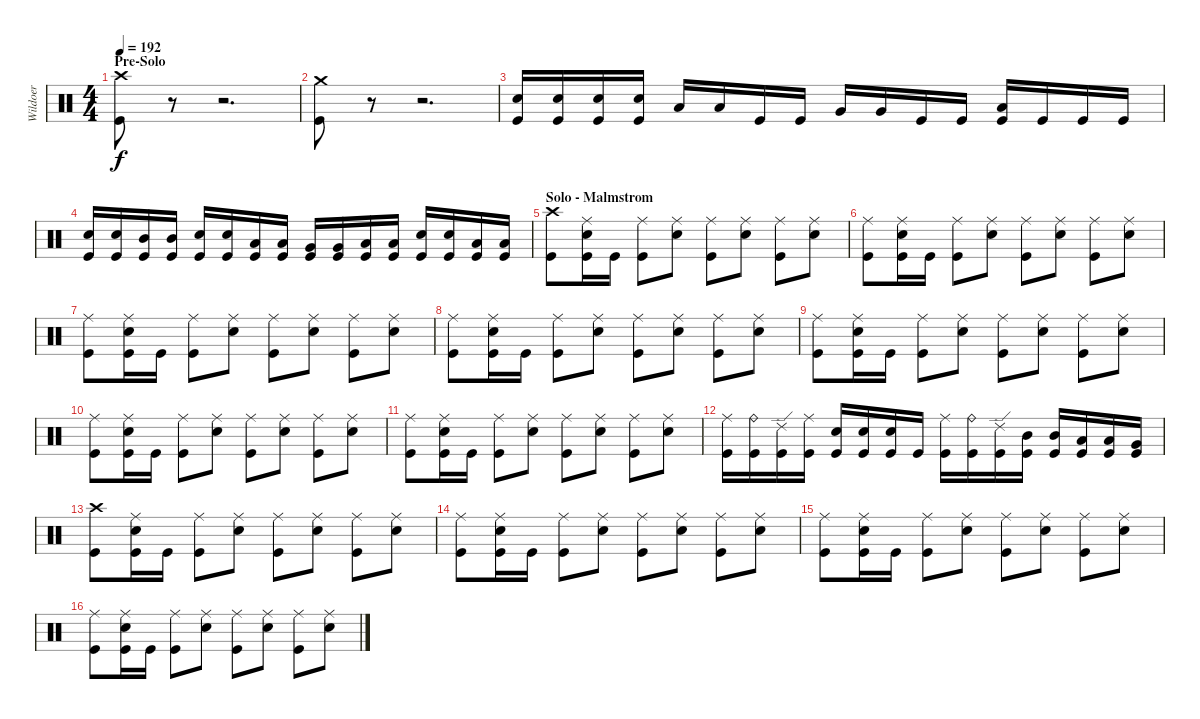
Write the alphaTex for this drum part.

\track ("Wildoer" "Wildoer") {instrument percussion}
\staff {score}
\articulation defaults
\ts (4 4)
\section ("" "Pre-Solo")
\tempo 192
\clef neutral
\ks c
("Crash high (hit)" "Kick (hit)").8{dy f} r.8 r.2{d} |
("Crash medium (hit)" "Kick (hit)").8 r.8 r.2{d} |
("Electric Snare (hit)" "Kick (hit)").16 ("Electric Snare (hit)" "Kick (hit)").16 ("Electric Snare (hit)" "Kick (hit)").16 ("Electric Snare (hit)" "Kick (hit)").16 "Low Tom (hit)".16 "Low Tom (hit)".16 "Kick (hit)".16 "Kick (hit)".16 "Very Low Tom (hit)".16 "Very Low Tom (hit)".16 "Kick (hit)".16 "Kick (hit)".16 ("Low Floor Tom (hit)" "Kick (hit)").16 "Kick (hit)".16 "Kick (hit)".16 "Kick (hit)".16 |
("Electric Snare (hit)" "Kick (hit)").16 ("Electric Snare (hit)" "Kick (hit)").16 ("Mid Tom (hit)" "Kick (hit)").16 ("Mid Tom (hit)" "Kick (hit)").16 ("Electric Snare (hit)" "Kick (hit)").16 ("Electric Snare (hit)" "Kick (hit)").16 ("Low Tom (hit)" "Kick (hit)").16 ("Low Tom (hit)" "Kick (hit)").16 ("Very Low Tom (hit)" "Kick (hit)").16 ("Very Low Tom (hit)" "Kick (hit)").16 ("Low Floor Tom (hit)" "Kick (hit)").16 ("Low Floor Tom (hit)" "Kick (hit)").16 ("Electric Snare (hit)" "Kick (hit)").16 ("Electric Snare (hit)" "Kick (hit)").16 ("Low Tom (hit)" "Kick (hit)").16 ("Low Tom (hit)" "Kick (hit)").16 |
\section ("" "Solo - Malmstrom")
("Crash high (hit)" "Kick (hit)").8 ("Ride (middle)" "Electric Snare (hit)" "Kick (hit)").16 "Kick (hit)".16 ("Ride (middle)" "Kick (hit)").8 ("Ride (middle)" "Electric Snare (hit)").8 ("Ride (middle)" "Kick (hit)").8 ("Ride (middle)" "Electric Snare (hit)").8 ("Ride (middle)" "Kick (hit)").8 ("Ride (middle)" "Electric Snare (hit)").8 |
("Ride (middle)" "Kick (hit)").8 ("Ride (middle)" "Electric Snare (hit)" "Kick (hit)").16 "Kick (hit)".16 ("Ride (middle)" "Kick (hit)").8 ("Ride (middle)" "Electric Snare (hit)").8 ("Ride (middle)" "Kick (hit)").8 ("Ride (middle)" "Electric Snare (hit)").8 ("Ride (middle)" "Kick (hit)").8 ("Ride (middle)" "Electric Snare (hit)").8 |
("Ride (middle)" "Kick (hit)").8 ("Ride (middle)" "Electric Snare (hit)" "Kick (hit)").16 "Kick (hit)".16 ("Ride (middle)" "Kick (hit)").8 ("Ride (middle)" "Electric Snare (hit)").8 ("Ride (middle)" "Kick (hit)").8 ("Ride (middle)" "Electric Snare (hit)").8 ("Ride (middle)" "Kick (hit)").8 ("Ride (middle)" "Electric Snare (hit)").8 |
("Ride (middle)" "Kick (hit)").8 ("Ride (middle)" "Electric Snare (hit)" "Kick (hit)").16 "Kick (hit)".16 ("Ride (middle)" "Kick (hit)").8 ("Ride (middle)" "Electric Snare (hit)").8 ("Ride (middle)" "Kick (hit)").8 ("Ride (middle)" "Electric Snare (hit)").8 ("Ride (middle)" "Kick (hit)").8 ("Ride (middle)" "Electric Snare (hit)").8 |
("Ride (middle)" "Kick (hit)").8 ("Ride (middle)" "Electric Snare (hit)" "Kick (hit)").16 "Kick (hit)".16 ("Ride (middle)" "Kick (hit)").8 ("Ride (middle)" "Electric Snare (hit)").8 ("Ride (middle)" "Kick (hit)").8 ("Ride (middle)" "Electric Snare (hit)").8 ("Ride (middle)" "Kick (hit)").8 ("Ride (middle)" "Electric Snare (hit)").8 |
("Ride (middle)" "Kick (hit)").8 ("Ride (middle)" "Electric Snare (hit)" "Kick (hit)").16 "Kick (hit)".16 ("Ride (middle)" "Kick (hit)").8 ("Ride (middle)" "Electric Snare (hit)").8 ("Ride (middle)" "Kick (hit)").8 ("Ride (middle)" "Electric Snare (hit)").8 ("Ride (middle)" "Kick (hit)").8 ("Ride (middle)" "Electric Snare (hit)").8 |
("Ride (middle)" "Kick (hit)").8 ("Ride (middle)" "Electric Snare (hit)" "Kick (hit)").16 "Kick (hit)".16 ("Ride (middle)" "Kick (hit)").8 ("Ride (middle)" "Electric Snare (hit)").8 ("Ride (middle)" "Kick (hit)").8 ("Ride (middle)" "Electric Snare (hit)").8 ("Ride (middle)" "Kick (hit)").8 ("Ride (middle)" "Electric Snare (hit)").8 |
("Ride (middle)" "Kick (hit)").16 ("Ride (bell)" "Kick (hit)").16 ("Ride (edge) 2" "Kick (hit)").16 ("Ride (middle)" "Kick (hit)").16 ("Electric Snare (hit)" "Kick (hit)").16 ("Electric Snare (hit)" "Kick (hit)").16 ("Electric Snare (hit)" "Kick (hit)").16 "Kick (hit)".16 ("Ride (middle)" "Kick (hit)").16 ("Ride (bell)" "Kick (hit)").16 ("Ride (edge) 2" "Kick (hit)").16 ("Mid Tom (hit)" "Kick (hit)").16 ("Mid Tom (hit)" "Kick (hit)").16 ("Low Tom (hit)" "Kick (hit)").16 ("Low Tom (hit)" "Kick (hit)").16 ("Very Low Tom (hit)" "Kick (hit)").16 |
("Crash high (hit)" "Kick (hit)").8 ("Ride (middle)" "Electric Snare (hit)" "Kick (hit)").16 "Kick (hit)".16 ("Ride (middle)" "Kick (hit)").8 ("Ride (middle)" "Electric Snare (hit)").8 ("Ride (middle)" "Kick (hit)").8 ("Ride (middle)" "Electric Snare (hit)").8 ("Ride (middle)" "Kick (hit)").8 ("Ride (middle)" "Electric Snare (hit)").8 |
("Ride (middle)" "Kick (hit)").8 ("Ride (middle)" "Electric Snare (hit)" "Kick (hit)").16 "Kick (hit)".16 ("Ride (middle)" "Kick (hit)").8 ("Ride (middle)" "Electric Snare (hit)").8 ("Ride (middle)" "Kick (hit)").8 ("Ride (middle)" "Electric Snare (hit)").8 ("Ride (middle)" "Kick (hit)").8 ("Ride (middle)" "Electric Snare (hit)").8 |
("Ride (middle)" "Kick (hit)").8 ("Ride (middle)" "Electric Snare (hit)" "Kick (hit)").16 "Kick (hit)".16 ("Ride (middle)" "Kick (hit)").8 ("Ride (middle)" "Electric Snare (hit)").8 ("Ride (middle)" "Kick (hit)").8 ("Ride (middle)" "Electric Snare (hit)").8 ("Ride (middle)" "Kick (hit)").8 ("Ride (middle)" "Electric Snare (hit)").8 |
("Ride (middle)" "Kick (hit)").8 ("Ride (middle)" "Electric Snare (hit)" "Kick (hit)").16 "Kick (hit)".16 ("Ride (middle)" "Kick (hit)").8 ("Ride (middle)" "Electric Snare (hit)").8 ("Ride (middle)" "Kick (hit)").8 ("Ride (middle)" "Electric Snare (hit)").8 ("Ride (middle)" "Kick (hit)").8 ("Ride (middle)" "Electric Snare (hit)").8
